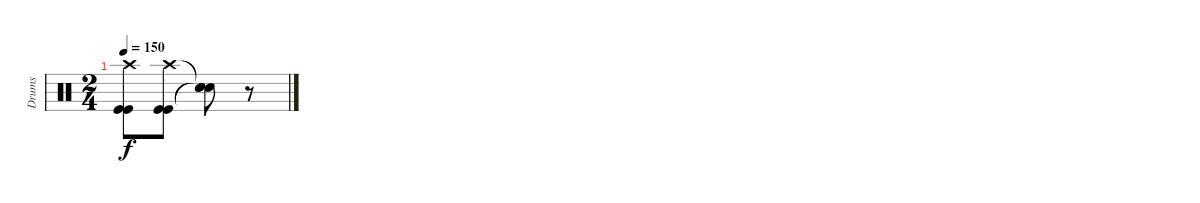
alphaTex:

\track ("Drums" "Drums") {instrument percussion}
\staff {score}
\articulation defaults
\ts (2 4)
\tempo 150
\clef neutral
\ks c
("Crash high (hit)" "Kick (hit)" "Kick (hit)").8{dy f} ("Crash high (hit)" "Kick (hit)" "Kick (hit)").8 ("Snare (hit)"{t} "Snare (hit)"{t} "Snare (hit)"{t}).8 r.8
